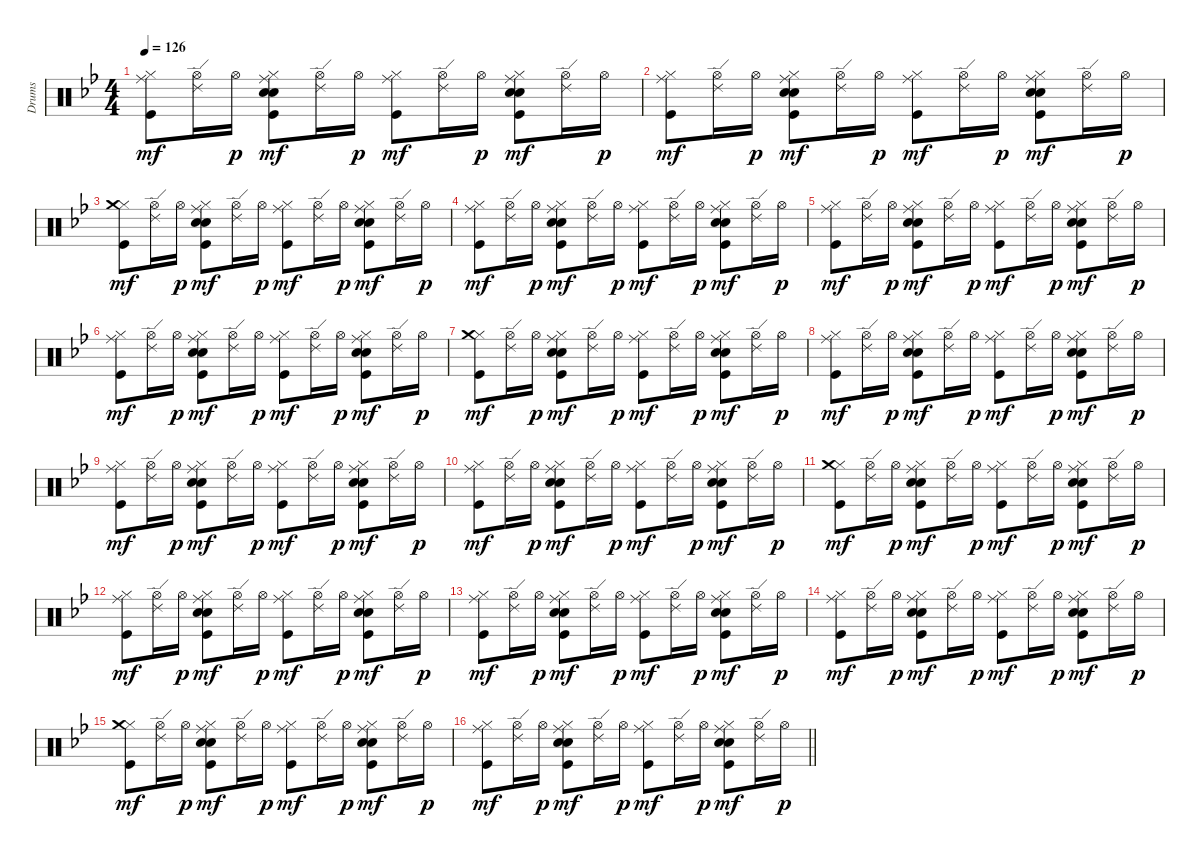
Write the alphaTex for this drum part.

\track ("Drums" "Drums") {instrument percussion}
\staff {score}
\articulation defaults
\ts (4 4)
\tempo 126
\clef neutral
\ks bb
("Hi-Hat (closed)" "Kick (hit)" "Ride (middle)").8{dy mf} ("Hi-Hat (open)" "Ride (edge) 2").16 "Hi-Hat (open)".16{dy p} ("Hi-Hat (closed)" "Kick (hit)" "Hand Clap (hit)" "Electric Snare (hit)" "Ride (middle)").8{dy mf} ("Hi-Hat (open)" "Ride (edge) 2").16 "Hi-Hat (open)".16{dy p} ("Hi-Hat (closed)" "Kick (hit)" "Ride (middle)").8{dy mf} ("Hi-Hat (open)" "Ride (edge) 2").16 "Hi-Hat (open)".16{dy p} ("Hi-Hat (closed)" "Kick (hit)" "Hand Clap (hit)" "Electric Snare (hit)" "Ride (middle)").8{dy mf} ("Hi-Hat (open)" "Ride (edge) 2").16 "Hi-Hat (open)".16{dy p} |
("Hi-Hat (closed)" "Kick (hit)" "Ride (middle)").8{dy mf} ("Hi-Hat (open)" "Ride (edge) 2").16 "Hi-Hat (open)".16{dy p} ("Hi-Hat (closed)" "Kick (hit)" "Hand Clap (hit)" "Electric Snare (hit)" "Ride (middle)").8{dy mf} ("Hi-Hat (open)" "Ride (edge) 2").16 "Hi-Hat (open)".16{dy p} ("Hi-Hat (closed)" "Kick (hit)" "Ride (middle)").8{dy mf} ("Hi-Hat (open)" "Ride (edge) 2").16 "Hi-Hat (open)".16{dy p} ("Hi-Hat (closed)" "Kick (hit)" "Hand Clap (hit)" "Electric Snare (hit)" "Ride (middle)").8{dy mf} ("Hi-Hat (open)" "Ride (edge) 2").16 "Hi-Hat (open)".16{dy p} |
("Hi-Hat (closed)" "Kick (hit)" "Crash medium (hit)").8{dy mf} ("Hi-Hat (open)" "Ride (edge) 2").16 "Hi-Hat (open)".16{dy p} ("Hi-Hat (closed)" "Kick (hit)" "Hand Clap (hit)" "Electric Snare (hit)" "Ride (middle)").8{dy mf} ("Hi-Hat (open)" "Ride (edge) 2").16 "Hi-Hat (open)".16{dy p} ("Hi-Hat (closed)" "Kick (hit)" "Ride (middle)").8{dy mf} ("Hi-Hat (open)" "Ride (edge) 2").16 "Hi-Hat (open)".16{dy p} ("Hi-Hat (closed)" "Kick (hit)" "Hand Clap (hit)" "Electric Snare (hit)" "Ride (middle)").8{dy mf} ("Hi-Hat (open)" "Ride (edge) 2").16 "Hi-Hat (open)".16{dy p} |
("Hi-Hat (closed)" "Kick (hit)" "Ride (middle)").8{dy mf} ("Hi-Hat (open)" "Ride (edge) 2").16 "Hi-Hat (open)".16{dy p} ("Hi-Hat (closed)" "Kick (hit)" "Hand Clap (hit)" "Electric Snare (hit)" "Ride (middle)").8{dy mf} ("Hi-Hat (open)" "Ride (edge) 2").16 "Hi-Hat (open)".16{dy p} ("Hi-Hat (closed)" "Kick (hit)" "Ride (middle)").8{dy mf} ("Hi-Hat (open)" "Ride (edge) 2").16 "Hi-Hat (open)".16{dy p} ("Hi-Hat (closed)" "Kick (hit)" "Hand Clap (hit)" "Electric Snare (hit)" "Ride (middle)").8{dy mf} ("Hi-Hat (open)" "Ride (edge) 2").16 "Hi-Hat (open)".16{dy p} |
("Hi-Hat (closed)" "Kick (hit)" "Ride (middle)").8{dy mf} ("Hi-Hat (open)" "Ride (edge) 2").16 "Hi-Hat (open)".16{dy p} ("Hi-Hat (closed)" "Kick (hit)" "Hand Clap (hit)" "Electric Snare (hit)" "Ride (middle)").8{dy mf} ("Hi-Hat (open)" "Ride (edge) 2").16 "Hi-Hat (open)".16{dy p} ("Hi-Hat (closed)" "Kick (hit)" "Ride (middle)").8{dy mf} ("Hi-Hat (open)" "Ride (edge) 2").16 "Hi-Hat (open)".16{dy p} ("Hi-Hat (closed)" "Kick (hit)" "Hand Clap (hit)" "Electric Snare (hit)" "Ride (middle)").8{dy mf} ("Hi-Hat (open)" "Ride (edge) 2").16 "Hi-Hat (open)".16{dy p} |
("Hi-Hat (closed)" "Kick (hit)" "Ride (middle)").8{dy mf} ("Hi-Hat (open)" "Ride (edge) 2").16 "Hi-Hat (open)".16{dy p} ("Hi-Hat (closed)" "Kick (hit)" "Hand Clap (hit)" "Electric Snare (hit)" "Ride (middle)").8{dy mf} ("Hi-Hat (open)" "Ride (edge) 2").16 "Hi-Hat (open)".16{dy p} ("Hi-Hat (closed)" "Kick (hit)" "Ride (middle)").8{dy mf} ("Hi-Hat (open)" "Ride (edge) 2").16 "Hi-Hat (open)".16{dy p} ("Hi-Hat (closed)" "Kick (hit)" "Hand Clap (hit)" "Electric Snare (hit)" "Ride (middle)").8{dy mf} ("Hi-Hat (open)" "Ride (edge) 2").16 "Hi-Hat (open)".16{dy p} |
("Hi-Hat (closed)" "Kick (hit)" "Crash medium (hit)").8{dy mf} ("Hi-Hat (open)" "Ride (edge) 2").16 "Hi-Hat (open)".16{dy p} ("Hi-Hat (closed)" "Kick (hit)" "Hand Clap (hit)" "Electric Snare (hit)" "Ride (middle)").8{dy mf} ("Hi-Hat (open)" "Ride (edge) 2").16 "Hi-Hat (open)".16{dy p} ("Hi-Hat (closed)" "Kick (hit)" "Ride (middle)").8{dy mf} ("Hi-Hat (open)" "Ride (edge) 2").16 "Hi-Hat (open)".16{dy p} ("Hi-Hat (closed)" "Kick (hit)" "Hand Clap (hit)" "Electric Snare (hit)" "Ride (middle)").8{dy mf} ("Hi-Hat (open)" "Ride (edge) 2").16 "Hi-Hat (open)".16{dy p} |
("Hi-Hat (closed)" "Kick (hit)" "Ride (middle)").8{dy mf} ("Hi-Hat (open)" "Ride (edge) 2").16 "Hi-Hat (open)".16{dy p} ("Hi-Hat (closed)" "Kick (hit)" "Hand Clap (hit)" "Electric Snare (hit)" "Ride (middle)").8{dy mf} ("Hi-Hat (open)" "Ride (edge) 2").16 "Hi-Hat (open)".16{dy p} ("Hi-Hat (closed)" "Kick (hit)" "Ride (middle)").8{dy mf} ("Hi-Hat (open)" "Ride (edge) 2").16 "Hi-Hat (open)".16{dy p} ("Hi-Hat (closed)" "Kick (hit)" "Hand Clap (hit)" "Electric Snare (hit)" "Ride (middle)").8{dy mf} ("Hi-Hat (open)" "Ride (edge) 2").16 "Hi-Hat (open)".16{dy p} |
("Hi-Hat (closed)" "Kick (hit)" "Ride (middle)").8{dy mf} ("Hi-Hat (open)" "Ride (edge) 2").16 "Hi-Hat (open)".16{dy p} ("Hi-Hat (closed)" "Kick (hit)" "Hand Clap (hit)" "Electric Snare (hit)" "Ride (middle)").8{dy mf} ("Hi-Hat (open)" "Ride (edge) 2").16 "Hi-Hat (open)".16{dy p} ("Hi-Hat (closed)" "Kick (hit)" "Ride (middle)").8{dy mf} ("Hi-Hat (open)" "Ride (edge) 2").16 "Hi-Hat (open)".16{dy p} ("Hi-Hat (closed)" "Kick (hit)" "Hand Clap (hit)" "Electric Snare (hit)" "Ride (middle)").8{dy mf} ("Hi-Hat (open)" "Ride (edge) 2").16 "Hi-Hat (open)".16{dy p} |
("Hi-Hat (closed)" "Kick (hit)" "Ride (middle)").8{dy mf} ("Hi-Hat (open)" "Ride (edge) 2").16 "Hi-Hat (open)".16{dy p} ("Hi-Hat (closed)" "Kick (hit)" "Hand Clap (hit)" "Electric Snare (hit)" "Ride (middle)").8{dy mf} ("Hi-Hat (open)" "Ride (edge) 2").16 "Hi-Hat (open)".16{dy p} ("Hi-Hat (closed)" "Kick (hit)" "Ride (middle)").8{dy mf} ("Hi-Hat (open)" "Ride (edge) 2").16 "Hi-Hat (open)".16{dy p} ("Hi-Hat (closed)" "Kick (hit)" "Hand Clap (hit)" "Electric Snare (hit)" "Ride (middle)").8{dy mf} ("Hi-Hat (open)" "Ride (edge) 2").16 "Hi-Hat (open)".16{dy p} |
("Hi-Hat (closed)" "Kick (hit)" "Crash medium (hit)").8{dy mf} ("Hi-Hat (open)" "Ride (edge) 2").16 "Hi-Hat (open)".16{dy p} ("Hi-Hat (closed)" "Kick (hit)" "Hand Clap (hit)" "Electric Snare (hit)" "Ride (middle)").8{dy mf} ("Hi-Hat (open)" "Ride (edge) 2").16 "Hi-Hat (open)".16{dy p} ("Hi-Hat (closed)" "Kick (hit)" "Ride (middle)").8{dy mf} ("Hi-Hat (open)" "Ride (edge) 2").16 "Hi-Hat (open)".16{dy p} ("Hi-Hat (closed)" "Kick (hit)" "Hand Clap (hit)" "Electric Snare (hit)" "Ride (middle)").8{dy mf} ("Hi-Hat (open)" "Ride (edge) 2").16 "Hi-Hat (open)".16{dy p} |
("Hi-Hat (closed)" "Kick (hit)" "Ride (middle)").8{dy mf} ("Hi-Hat (open)" "Ride (edge) 2").16 "Hi-Hat (open)".16{dy p} ("Hi-Hat (closed)" "Kick (hit)" "Hand Clap (hit)" "Electric Snare (hit)" "Ride (middle)").8{dy mf} ("Hi-Hat (open)" "Ride (edge) 2").16 "Hi-Hat (open)".16{dy p} ("Hi-Hat (closed)" "Kick (hit)" "Ride (middle)").8{dy mf} ("Hi-Hat (open)" "Ride (edge) 2").16 "Hi-Hat (open)".16{dy p} ("Hi-Hat (closed)" "Kick (hit)" "Hand Clap (hit)" "Electric Snare (hit)" "Ride (middle)").8{dy mf} ("Hi-Hat (open)" "Ride (edge) 2").16 "Hi-Hat (open)".16{dy p} |
("Hi-Hat (closed)" "Kick (hit)" "Ride (middle)").8{dy mf} ("Hi-Hat (open)" "Ride (edge) 2").16 "Hi-Hat (open)".16{dy p} ("Hi-Hat (closed)" "Kick (hit)" "Hand Clap (hit)" "Electric Snare (hit)" "Ride (middle)").8{dy mf} ("Hi-Hat (open)" "Ride (edge) 2").16 "Hi-Hat (open)".16{dy p} ("Hi-Hat (closed)" "Kick (hit)" "Ride (middle)").8{dy mf} ("Hi-Hat (open)" "Ride (edge) 2").16 "Hi-Hat (open)".16{dy p} ("Hi-Hat (closed)" "Kick (hit)" "Hand Clap (hit)" "Electric Snare (hit)" "Ride (middle)").8{dy mf} ("Hi-Hat (open)" "Ride (edge) 2").16 "Hi-Hat (open)".16{dy p} |
("Hi-Hat (closed)" "Kick (hit)" "Ride (middle)").8{dy mf} ("Hi-Hat (open)" "Ride (edge) 2").16 "Hi-Hat (open)".16{dy p} ("Hi-Hat (closed)" "Kick (hit)" "Hand Clap (hit)" "Electric Snare (hit)" "Ride (middle)").8{dy mf} ("Hi-Hat (open)" "Ride (edge) 2").16 "Hi-Hat (open)".16{dy p} ("Hi-Hat (closed)" "Kick (hit)" "Ride (middle)").8{dy mf} ("Hi-Hat (open)" "Ride (edge) 2").16 "Hi-Hat (open)".16{dy p} ("Hi-Hat (closed)" "Kick (hit)" "Hand Clap (hit)" "Electric Snare (hit)" "Ride (middle)").8{dy mf} ("Hi-Hat (open)" "Ride (edge) 2").16 "Hi-Hat (open)".16{dy p} |
("Hi-Hat (closed)" "Kick (hit)" "Crash medium (hit)").8{dy mf} ("Hi-Hat (open)" "Ride (edge) 2").16 "Hi-Hat (open)".16{dy p} ("Hi-Hat (closed)" "Kick (hit)" "Hand Clap (hit)" "Electric Snare (hit)" "Ride (middle)").8{dy mf} ("Hi-Hat (open)" "Ride (edge) 2").16 "Hi-Hat (open)".16{dy p} ("Hi-Hat (closed)" "Kick (hit)" "Ride (middle)").8{dy mf} ("Hi-Hat (open)" "Ride (edge) 2").16 "Hi-Hat (open)".16{dy p} ("Hi-Hat (closed)" "Kick (hit)" "Hand Clap (hit)" "Electric Snare (hit)" "Ride (middle)").8{dy mf} ("Hi-Hat (open)" "Ride (edge) 2").16 "Hi-Hat (open)".16{dy p} |
\barLineRight lightlight
("Hi-Hat (closed)" "Kick (hit)" "Ride (middle)").8{dy mf} ("Hi-Hat (open)" "Ride (edge) 2").16 "Hi-Hat (open)".16{dy p} ("Hi-Hat (closed)" "Kick (hit)" "Hand Clap (hit)" "Electric Snare (hit)" "Ride (middle)").8{dy mf} ("Hi-Hat (open)" "Ride (edge) 2").16 "Hi-Hat (open)".16{dy p} ("Hi-Hat (closed)" "Kick (hit)" "Ride (middle)").8{dy mf} ("Hi-Hat (open)" "Ride (edge) 2").16 "Hi-Hat (open)".16{dy p} ("Hi-Hat (closed)" "Kick (hit)" "Hand Clap (hit)" "Electric Snare (hit)" "Ride (middle)").8{dy mf} ("Hi-Hat (open)" "Ride (edge) 2").16 "Hi-Hat (open)".16{dy p}
